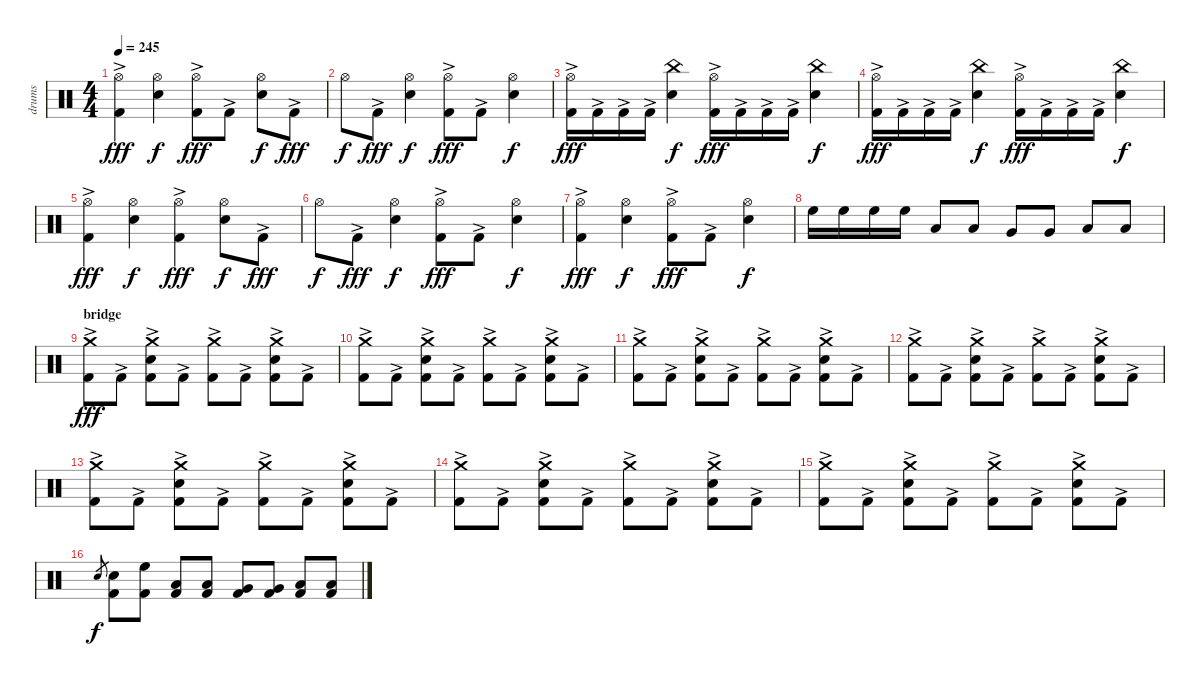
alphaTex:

\track ("drums" "drums") {instrument percussion}
\staff {score}
\articulation defaults
\ts (4 4)
\tempo 245
\clef neutral
\ks c
("Hi-Hat (open)" "Kick (hit) 2"{ac}).4{dy fff} ("Hi-Hat (open)" "Electric Snare (hit)").4{dy f} ("Hi-Hat (open)" "Kick (hit) 2"{ac}).8{dy fff} "Kick (hit) 2"{ac}.8 ("Hi-Hat (open)" "Electric Snare (hit)").8{dy f} "Kick (hit) 2"{ac}.8{dy fff} |
"Hi-Hat (open)".8{dy f} "Kick (hit) 2"{ac}.8{dy fff} ("Hi-Hat (open)" "Electric Snare (hit)").4{dy f} ("Hi-Hat (open)" "Kick (hit) 2"{ac}).8{dy fff} "Kick (hit) 2"{ac}.8 ("Hi-Hat (open)" "Electric Snare (hit)").4{dy f} |
("Hi-Hat (open)" "Kick (hit) 2"{ac}).16{dy fff} "Kick (hit) 2"{ac}.16 "Kick (hit) 2"{ac}.16 "Kick (hit) 2"{ac}.16 ("China (hit)" "Electric Snare (hit)").4{dy f} ("Hi-Hat (open)" "Kick (hit) 2"{ac}).16{dy fff} "Kick (hit) 2"{ac}.16 "Kick (hit) 2"{ac}.16 "Kick (hit) 2"{ac}.16 ("China (hit)" "Electric Snare (hit)").4{dy f} |
("Hi-Hat (open)" "Kick (hit) 2"{ac}).16{dy fff} "Kick (hit) 2"{ac}.16 "Kick (hit) 2"{ac}.16 "Kick (hit) 2"{ac}.16 ("China (hit)" "Electric Snare (hit)").4{dy f} ("Hi-Hat (open)" "Kick (hit) 2"{ac}).16{dy fff} "Kick (hit) 2"{ac}.16 "Kick (hit) 2"{ac}.16 "Kick (hit) 2"{ac}.16 ("China (hit)" "Electric Snare (hit)").4{dy f} |
("Hi-Hat (open)" "Kick (hit) 2"{ac}).4{dy fff} ("Hi-Hat (open)" "Electric Snare (hit)").4{dy f} ("Hi-Hat (open)" "Kick (hit) 2"{ac}).4{dy fff} ("Hi-Hat (open)" "Electric Snare (hit)").8{dy f} "Kick (hit) 2"{ac}.8{dy fff} |
"Hi-Hat (open)".8{dy f} "Kick (hit) 2"{ac}.8{dy fff} ("Hi-Hat (open)" "Electric Snare (hit)").4{dy f} ("Hi-Hat (open)" "Kick (hit) 2"{ac}).8{dy fff} "Kick (hit) 2"{ac}.8 ("Hi-Hat (open)" "Electric Snare (hit)").4{dy f} |
("Hi-Hat (open)" "Kick (hit) 2"{ac}).4{dy fff} ("Hi-Hat (open)" "Electric Snare (hit)").4{dy f} ("Hi-Hat (open)" "Kick (hit) 2"{ac}).8{dy fff} "Kick (hit) 2"{ac}.8 ("Hi-Hat (open)" "Electric Snare (hit)").4{dy f} |
"High Floor Tom (hit)".16 "High Floor Tom (hit)".16 "High Floor Tom (hit)".16 "High Floor Tom (hit)".16 "Low Tom (hit)".8 "Low Tom (hit)".8 "Very Low Tom (hit)".8 "Very Low Tom (hit)".8 "Low Floor Tom (hit)".8 "Low Floor Tom (hit)".8 |
\section ("" "bridge")
("Crash medium (hit)" "Kick (hit) 2"{ac}).8{dy fff} "Kick (hit) 2"{ac}.8 ("Crash medium (hit)" "Electric Snare (hit)" "Kick (hit) 2"{ac}).8 "Kick (hit) 2"{ac}.8 ("Crash medium (hit)" "Kick (hit) 2"{ac}).8 "Kick (hit) 2"{ac}.8 ("Crash medium (hit)" "Electric Snare (hit)" "Kick (hit) 2"{ac}).8 "Kick (hit) 2"{ac}.8 |
("Crash medium (hit)" "Kick (hit) 2"{ac}).8 "Kick (hit) 2"{ac}.8 ("Crash medium (hit)" "Electric Snare (hit)" "Kick (hit) 2"{ac}).8 "Kick (hit) 2"{ac}.8 ("Crash medium (hit)" "Kick (hit) 2"{ac}).8 "Kick (hit) 2"{ac}.8 ("Crash medium (hit)" "Electric Snare (hit)" "Kick (hit) 2"{ac}).8 "Kick (hit) 2"{ac}.8 |
("Crash medium (hit)" "Kick (hit) 2"{ac}).8 "Kick (hit) 2"{ac}.8 ("Crash medium (hit)" "Electric Snare (hit)" "Kick (hit) 2"{ac}).8 "Kick (hit) 2"{ac}.8 ("Crash medium (hit)" "Kick (hit) 2"{ac}).8 "Kick (hit) 2"{ac}.8 ("Crash medium (hit)" "Electric Snare (hit)" "Kick (hit) 2"{ac}).8 "Kick (hit) 2"{ac}.8 |
("Crash medium (hit)" "Kick (hit) 2"{ac}).8 "Kick (hit) 2"{ac}.8 ("Crash medium (hit)" "Electric Snare (hit)" "Kick (hit) 2"{ac}).8 "Kick (hit) 2"{ac}.8 ("Crash medium (hit)" "Kick (hit) 2"{ac}).8 "Kick (hit) 2"{ac}.8 ("Crash medium (hit)" "Electric Snare (hit)" "Kick (hit) 2"{ac}).8 "Kick (hit) 2"{ac}.8 |
("Crash medium (hit)" "Kick (hit) 2"{ac}).8 "Kick (hit) 2"{ac}.8 ("Crash medium (hit)" "Electric Snare (hit)" "Kick (hit) 2"{ac}).8 "Kick (hit) 2"{ac}.8 ("Crash medium (hit)" "Kick (hit) 2"{ac}).8 "Kick (hit) 2"{ac}.8 ("Crash medium (hit)" "Electric Snare (hit)" "Kick (hit) 2"{ac}).8 "Kick (hit) 2"{ac}.8 |
("Crash medium (hit)" "Kick (hit) 2"{ac}).8 "Kick (hit) 2"{ac}.8 ("Crash medium (hit)" "Electric Snare (hit)" "Kick (hit) 2"{ac}).8 "Kick (hit) 2"{ac}.8 ("Crash medium (hit)" "Kick (hit) 2"{ac}).8 "Kick (hit) 2"{ac}.8 ("Crash medium (hit)" "Electric Snare (hit)" "Kick (hit) 2"{ac}).8 "Kick (hit) 2"{ac}.8 |
("Crash medium (hit)" "Kick (hit) 2"{ac}).8 "Kick (hit) 2"{ac}.8 ("Crash medium (hit)" "Electric Snare (hit)" "Kick (hit) 2"{ac}).8 "Kick (hit) 2"{ac}.8 ("Crash medium (hit)" "Kick (hit) 2"{ac}).8 "Kick (hit) 2"{ac}.8 ("Crash medium (hit)" "Electric Snare (hit)" "Kick (hit) 2"{ac}).8 "Kick (hit) 2"{ac}.8 |
"Electric Snare (hit)".8{gr dy f} ("Electric Snare (hit)" "Kick (hit) 2").8 ("High Floor Tom (hit)" "Kick (hit) 2").8 ("Low Tom (hit)" "Kick (hit) 2").8 ("Low Tom (hit)" "Kick (hit) 2").8 ("Very Low Tom (hit)" "Kick (hit) 2").8 ("Very Low Tom (hit)" "Kick (hit) 2").8 ("Low Floor Tom (hit)" "Kick (hit) 2").8 ("Low Floor Tom (hit)" "Kick (hit) 2").8
